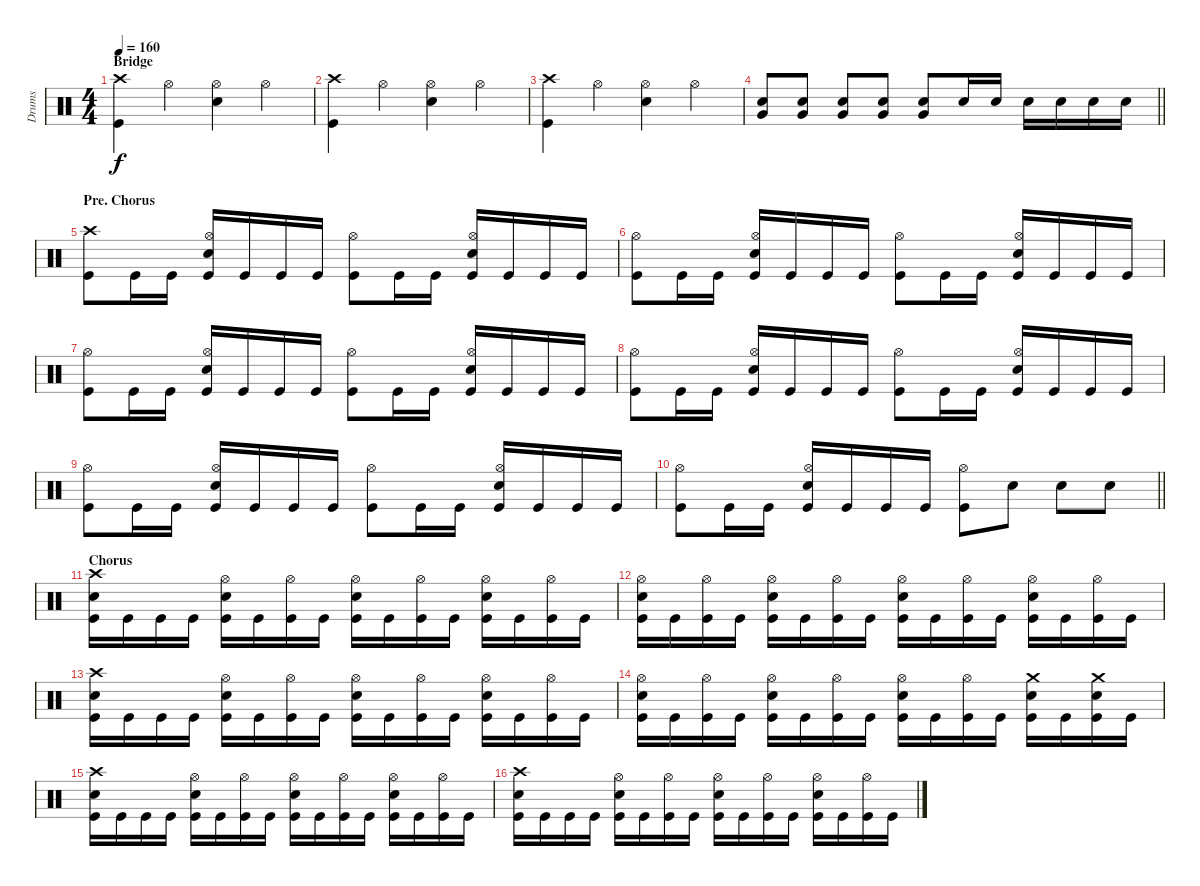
\track ("Drums" "Drums") {instrument percussion}
\staff {score}
\articulation defaults
\ts (4 4)
\section ("" "Bridge")
\tempo 160
\clef neutral
\ks c
("Crash high (hit)" "Kick (hit)").4{dy f} "Hi-Hat (open)".4 ("Hi-Hat (open)" "Snare (hit) 2").4 "Hi-Hat (open)".4 |
("Crash high (hit)" "Kick (hit)").4 "Hi-Hat (open)".4 ("Hi-Hat (open)" "Snare (hit) 2").4 "Hi-Hat (open)".4 |
("Crash high (hit)" "Kick (hit)").4 "Hi-Hat (open)".4 ("Hi-Hat (open)" "Snare (hit) 2").4 "Hi-Hat (open)".4 |
\barLineRight lightlight
("Very Low Tom (hit)" "Snare (hit) 2").8 ("Very Low Tom (hit)" "Snare (hit) 2").8 ("Very Low Tom (hit)" "Snare (hit) 2").8 ("Very Low Tom (hit)" "Snare (hit) 2").8 ("Very Low Tom (hit)" "Snare (hit) 2").8 "Snare (hit) 2".16 "Snare (hit) 2".16 "Snare (hit) 2".16 "Snare (hit) 2".16 "Snare (hit) 2".16 "Snare (hit) 2".16 |
\section ("" "Pre. Chorus")
("Crash high (hit)" "Kick (hit)").8 "Kick (hit)".16 "Kick (hit)".16 ("Hi-Hat (open)" "Snare (hit) 2" "Kick (hit)").16 "Kick (hit)".16 "Kick (hit)".16 "Kick (hit)".16 ("Hi-Hat (open)" "Kick (hit)").8 "Kick (hit)".16 "Kick (hit)".16 ("Hi-Hat (open)" "Snare (hit) 2" "Kick (hit)").16 "Kick (hit)".16 "Kick (hit)".16 "Kick (hit)".16 |
("Hi-Hat (open)" "Kick (hit)").8 "Kick (hit)".16 "Kick (hit)".16 ("Hi-Hat (open)" "Snare (hit) 2" "Kick (hit)").16 "Kick (hit)".16 "Kick (hit)".16 "Kick (hit)".16 ("Hi-Hat (open)" "Kick (hit)").8 "Kick (hit)".16 "Kick (hit)".16 ("Hi-Hat (open)" "Snare (hit) 2" "Kick (hit)").16 "Kick (hit)".16 "Kick (hit)".16 "Kick (hit)".16 |
("Hi-Hat (open)" "Kick (hit)").8 "Kick (hit)".16 "Kick (hit)".16 ("Hi-Hat (open)" "Snare (hit) 2" "Kick (hit)").16 "Kick (hit)".16 "Kick (hit)".16 "Kick (hit)".16 ("Hi-Hat (open)" "Kick (hit)").8 "Kick (hit)".16 "Kick (hit)".16 ("Hi-Hat (open)" "Snare (hit) 2" "Kick (hit)").16 "Kick (hit)".16 "Kick (hit)".16 "Kick (hit)".16 |
("Hi-Hat (open)" "Kick (hit)").8 "Kick (hit)".16 "Kick (hit)".16 ("Hi-Hat (open)" "Snare (hit) 2" "Kick (hit)").16 "Kick (hit)".16 "Kick (hit)".16 "Kick (hit)".16 ("Hi-Hat (open)" "Kick (hit)").8 "Kick (hit)".16 "Kick (hit)".16 ("Hi-Hat (open)" "Snare (hit) 2" "Kick (hit)").16 "Kick (hit)".16 "Kick (hit)".16 "Kick (hit)".16 |
("Hi-Hat (open)" "Kick (hit)").8 "Kick (hit)".16 "Kick (hit)".16 ("Hi-Hat (open)" "Snare (hit) 2" "Kick (hit)").16 "Kick (hit)".16 "Kick (hit)".16 "Kick (hit)".16 ("Hi-Hat (open)" "Kick (hit)").8 "Kick (hit)".16 "Kick (hit)".16 ("Hi-Hat (open)" "Snare (hit) 2" "Kick (hit)").16 "Kick (hit)".16 "Kick (hit)".16 "Kick (hit)".16 |
\barLineRight lightlight
("Hi-Hat (open)" "Kick (hit)").8 "Kick (hit)".16 "Kick (hit)".16 ("Hi-Hat (open)" "Snare (hit) 2" "Kick (hit)").16 "Kick (hit)".16 "Kick (hit)".16 "Kick (hit)".16 ("Hi-Hat (open)" "Kick (hit)").8 "Snare (hit) 2".8 "Snare (hit) 2".8 "Snare (hit) 2".8 |
\section ("" "Chorus")
("Crash high (hit)" "Snare (hit) 2" "Kick (hit)").16 "Kick (hit)".16 "Kick (hit)".16 "Kick (hit)".16 ("Hi-Hat (open)" "Snare (hit) 2" "Kick (hit)").16 "Kick (hit)".16 ("Hi-Hat (open)" "Kick (hit)").16 "Kick (hit)".16 ("Hi-Hat (open)" "Snare (hit) 2" "Kick (hit)").16 "Kick (hit)".16 ("Hi-Hat (open)" "Kick (hit)").16 "Kick (hit)".16 ("Hi-Hat (open)" "Snare (hit) 2" "Kick (hit)").16 "Kick (hit)".16 ("Hi-Hat (open)" "Kick (hit)").16 "Kick (hit)".16 |
("Hi-Hat (open)" "Snare (hit) 2" "Kick (hit)").16 "Kick (hit)".16 ("Hi-Hat (open)" "Kick (hit)").16 "Kick (hit)".16 ("Hi-Hat (open)" "Snare (hit) 2" "Kick (hit)").16 "Kick (hit)".16 ("Hi-Hat (open)" "Kick (hit)").16 "Kick (hit)".16 ("Hi-Hat (open)" "Snare (hit) 2" "Kick (hit)").16 "Kick (hit)".16 ("Hi-Hat (open)" "Kick (hit)").16 "Kick (hit)".16 ("Hi-Hat (open)" "Snare (hit) 2" "Kick (hit)").16 "Kick (hit)".16 ("Hi-Hat (open)" "Kick (hit)").16 "Kick (hit)".16 |
("Crash high (hit)" "Snare (hit) 2" "Kick (hit)").16 "Kick (hit)".16 "Kick (hit)".16 "Kick (hit)".16 ("Hi-Hat (open)" "Snare (hit) 2" "Kick (hit)").16 "Kick (hit)".16 ("Hi-Hat (open)" "Kick (hit)").16 "Kick (hit)".16 ("Hi-Hat (open)" "Snare (hit) 2" "Kick (hit)").16 "Kick (hit)".16 ("Hi-Hat (open)" "Kick (hit)").16 "Kick (hit)".16 ("Hi-Hat (open)" "Snare (hit) 2" "Kick (hit)").16 "Kick (hit)".16 ("Hi-Hat (open)" "Kick (hit)").16 "Kick (hit)".16 |
("Hi-Hat (open)" "Snare (hit) 2" "Kick (hit)").16 "Kick (hit)".16 ("Hi-Hat (open)" "Kick (hit)").16 "Kick (hit)".16 ("Hi-Hat (open)" "Snare (hit) 2" "Kick (hit)").16 "Kick (hit)".16 ("Hi-Hat (open)" "Kick (hit)").16 "Kick (hit)".16 ("Hi-Hat (open)" "Snare (hit) 2" "Kick (hit)").16 "Kick (hit)".16 ("Hi-Hat (open)" "Kick (hit)").16 "Kick (hit)".16 ("Crash medium (hit)" "Snare (hit) 2" "Kick (hit)").16 "Kick (hit)".16 ("Crash medium (hit)" "Snare (hit) 2" "Kick (hit)").16 "Kick (hit)".16 |
("Crash high (hit)" "Snare (hit) 2" "Kick (hit)").16 "Kick (hit)".16 "Kick (hit)".16 "Kick (hit)".16 ("Hi-Hat (open)" "Snare (hit) 2" "Kick (hit)").16 "Kick (hit)".16 ("Hi-Hat (open)" "Kick (hit)").16 "Kick (hit)".16 ("Hi-Hat (open)" "Snare (hit) 2" "Kick (hit)").16 "Kick (hit)".16 ("Hi-Hat (open)" "Kick (hit)").16 "Kick (hit)".16 ("Hi-Hat (open)" "Snare (hit) 2" "Kick (hit)").16 "Kick (hit)".16 ("Hi-Hat (open)" "Kick (hit)").16 "Kick (hit)".16 |
("Crash high (hit)" "Snare (hit) 2" "Kick (hit)").16 "Kick (hit)".16 "Kick (hit)".16 "Kick (hit)".16 ("Hi-Hat (open)" "Snare (hit) 2" "Kick (hit)").16 "Kick (hit)".16 ("Hi-Hat (open)" "Kick (hit)").16 "Kick (hit)".16 ("Hi-Hat (open)" "Snare (hit) 2" "Kick (hit)").16 "Kick (hit)".16 ("Hi-Hat (open)" "Kick (hit)").16 "Kick (hit)".16 ("Hi-Hat (open)" "Snare (hit) 2" "Kick (hit)").16 "Kick (hit)".16 ("Hi-Hat (open)" "Kick (hit)").16 "Kick (hit)".16
